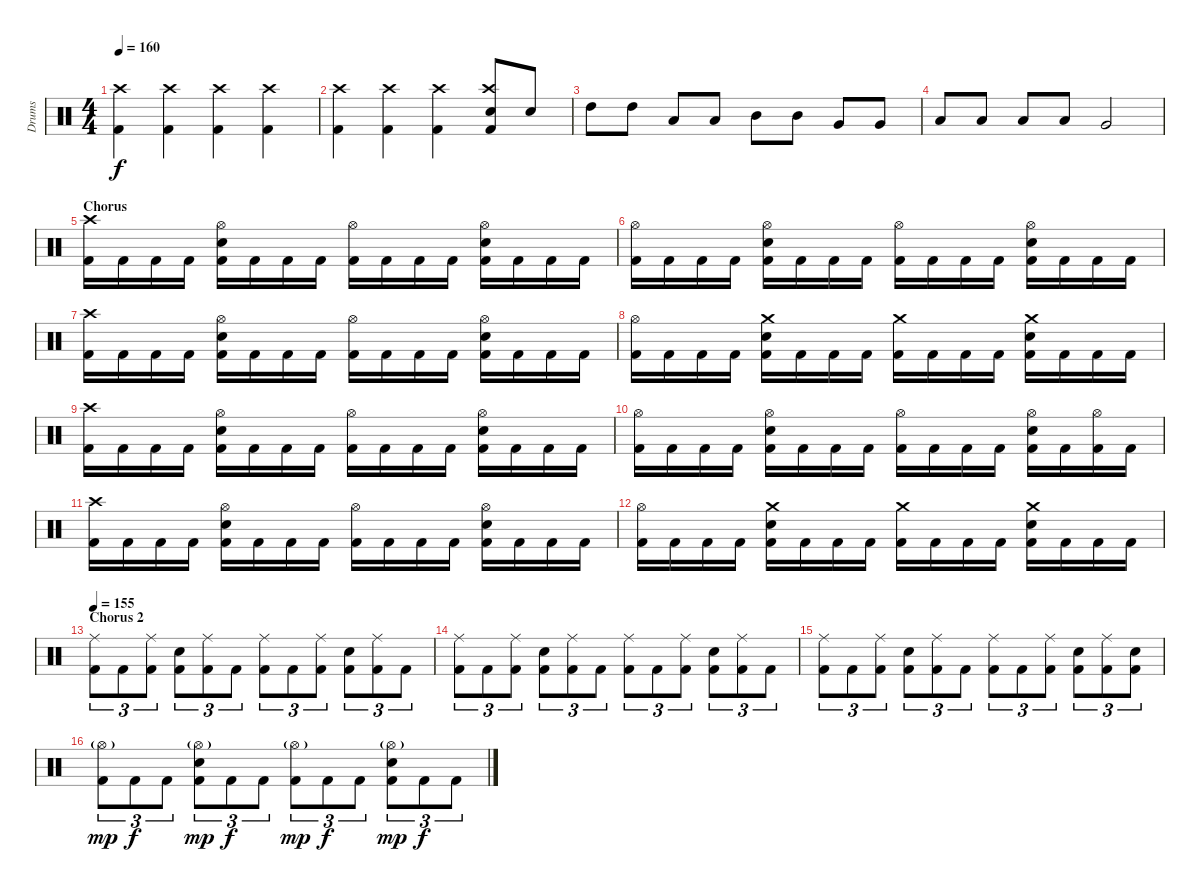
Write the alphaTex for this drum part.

\track ("Drums" "Drums") {instrument percussion}
\staff {score}
\articulation defaults
\ts (4 4)
\tempo 160
\clef neutral
\ks c
("Kick (hit) 2" "Crash high (hit)").4{dy f} ("Kick (hit) 2" "Crash high (hit)").4 ("Kick (hit) 2" "Crash high (hit)").4 ("Kick (hit) 2" "Crash high (hit)").4 |
("Kick (hit) 2" "Crash high (hit)").4 ("Kick (hit) 2" "Crash high (hit)").4 ("Kick (hit) 2" "Crash high (hit)").4 ("Kick (hit) 2" "Electric Snare (hit)" "Crash high (hit)").8 "Electric Snare (hit)".8 |
"High Tom (hit)".8 "High Tom (hit)".8 "Low Tom (hit)".8 "Low Tom (hit)".8 "Mid Tom (hit)".8 "Mid Tom (hit)".8 "Very Low Tom (hit)".8 "Very Low Tom (hit)".8 |
"Low Tom (hit)".8 "Low Tom (hit)".8 "Low Floor Tom (hit)".8 "Low Floor Tom (hit)".8 "Very Low Tom (hit)".2 |
\section ("" "Chorus")
("Kick (hit) 2" "Crash high (hit)").16 "Kick (hit) 2".16 "Kick (hit) 2".16 "Kick (hit) 2".16 ("Kick (hit) 2" "Electric Snare (hit)" "Hi-Hat (open)").16 "Kick (hit) 2".16 "Kick (hit) 2".16 "Kick (hit) 2".16 ("Kick (hit) 2" "Hi-Hat (open)").16 "Kick (hit) 2".16 "Kick (hit) 2".16 "Kick (hit) 2".16 ("Kick (hit) 2" "Electric Snare (hit)" "Hi-Hat (open)").16 "Kick (hit) 2".16 "Kick (hit) 2".16 "Kick (hit) 2".16 |
("Kick (hit) 2" "Hi-Hat (open)").16 "Kick (hit) 2".16 "Kick (hit) 2".16 "Kick (hit) 2".16 ("Kick (hit) 2" "Electric Snare (hit)" "Hi-Hat (open)").16 "Kick (hit) 2".16 "Kick (hit) 2".16 "Kick (hit) 2".16 ("Kick (hit) 2" "Hi-Hat (open)").16 "Kick (hit) 2".16 "Kick (hit) 2".16 "Kick (hit) 2".16 ("Kick (hit) 2" "Electric Snare (hit)" "Hi-Hat (open)").16 "Kick (hit) 2".16 "Kick (hit) 2".16 "Kick (hit) 2".16 |
("Kick (hit) 2" "Crash high (hit)").16 "Kick (hit) 2".16 "Kick (hit) 2".16 "Kick (hit) 2".16 ("Kick (hit) 2" "Electric Snare (hit)" "Hi-Hat (open)").16 "Kick (hit) 2".16 "Kick (hit) 2".16 "Kick (hit) 2".16 ("Kick (hit) 2" "Hi-Hat (open)").16 "Kick (hit) 2".16 "Kick (hit) 2".16 "Kick (hit) 2".16 ("Kick (hit) 2" "Electric Snare (hit)" "Hi-Hat (open)").16 "Kick (hit) 2".16 "Kick (hit) 2".16 "Kick (hit) 2".16 |
("Kick (hit) 2" "Hi-Hat (open)").16 "Kick (hit) 2".16 "Kick (hit) 2".16 "Kick (hit) 2".16 ("Kick (hit) 2" "Electric Snare (hit)" "Crash medium (hit)").16 "Kick (hit) 2".16 "Kick (hit) 2".16 "Kick (hit) 2".16 ("Kick (hit) 2" "Crash medium (hit)").16 "Kick (hit) 2".16 "Kick (hit) 2".16 "Kick (hit) 2".16 ("Kick (hit) 2" "Electric Snare (hit)" "Crash medium (hit)").16 "Kick (hit) 2".16 "Kick (hit) 2".16 "Kick (hit) 2".16 |
("Kick (hit) 2" "Crash high (hit)").16 "Kick (hit) 2".16 "Kick (hit) 2".16 "Kick (hit) 2".16 ("Kick (hit) 2" "Electric Snare (hit)" "Hi-Hat (open)").16 "Kick (hit) 2".16 "Kick (hit) 2".16 "Kick (hit) 2".16 ("Kick (hit) 2" "Hi-Hat (open)").16 "Kick (hit) 2".16 "Kick (hit) 2".16 "Kick (hit) 2".16 ("Kick (hit) 2" "Electric Snare (hit)" "Hi-Hat (open)").16 "Kick (hit) 2".16 "Kick (hit) 2".16 "Kick (hit) 2".16 |
("Kick (hit) 2" "Hi-Hat (open)").16 "Kick (hit) 2".16 "Kick (hit) 2".16 "Kick (hit) 2".16 ("Kick (hit) 2" "Electric Snare (hit)" "Hi-Hat (open)").16 "Kick (hit) 2".16 "Kick (hit) 2".16 "Kick (hit) 2".16 ("Kick (hit) 2" "Hi-Hat (open)").16 "Kick (hit) 2".16 "Kick (hit) 2".16 "Kick (hit) 2".16 ("Kick (hit) 2" "Electric Snare (hit)" "Hi-Hat (open)").16 "Kick (hit) 2".16 ("Kick (hit) 2" "Hi-Hat (open)").16 "Kick (hit) 2".16 |
("Kick (hit) 2" "Crash high (hit)").16 "Kick (hit) 2".16 "Kick (hit) 2".16 "Kick (hit) 2".16 ("Kick (hit) 2" "Electric Snare (hit)" "Hi-Hat (open)").16 "Kick (hit) 2".16 "Kick (hit) 2".16 "Kick (hit) 2".16 ("Kick (hit) 2" "Hi-Hat (open)").16 "Kick (hit) 2".16 "Kick (hit) 2".16 "Kick (hit) 2".16 ("Kick (hit) 2" "Electric Snare (hit)" "Hi-Hat (open)").16 "Kick (hit) 2".16 "Kick (hit) 2".16 "Kick (hit) 2".16 |
("Kick (hit) 2" "Hi-Hat (open)").16 "Kick (hit) 2".16 "Kick (hit) 2".16 "Kick (hit) 2".16 ("Kick (hit) 2" "Electric Snare (hit)" "Crash medium (hit)").16 "Kick (hit) 2".16 "Kick (hit) 2".16 "Kick (hit) 2".16 ("Kick (hit) 2" "Crash medium (hit)").16 "Kick (hit) 2".16 "Kick (hit) 2".16 "Kick (hit) 2".16 ("Kick (hit) 2" "Electric Snare (hit)" "Crash medium (hit)").16 "Kick (hit) 2".16 "Kick (hit) 2".16 "Kick (hit) 2".16 |
\section ("" "Chorus 2")
\tempo 155
("Kick (hit) 2" "Ride (middle)").8{tu (3 2)} "Kick (hit) 2".8{tu (3 2)} ("Kick (hit) 2" "Ride (middle)").8{tu (3 2)} ("Kick (hit) 2" "Electric Snare (hit)").8{tu (3 2)} ("Kick (hit) 2" "Ride (middle)").8{tu (3 2)} "Kick (hit) 2".8{tu (3 2)} ("Kick (hit) 2" "Ride (middle)").8{tu (3 2)} "Kick (hit) 2".8{tu (3 2)} ("Kick (hit) 2" "Ride (middle)").8{tu (3 2)} ("Kick (hit) 2" "Electric Snare (hit)").8{tu (3 2)} ("Kick (hit) 2" "Ride (middle)").8{tu (3 2)} "Kick (hit) 2".8{tu (3 2)} |
("Kick (hit) 2" "Ride (middle)").8{tu (3 2)} "Kick (hit) 2".8{tu (3 2)} ("Kick (hit) 2" "Ride (middle)").8{tu (3 2)} ("Kick (hit) 2" "Electric Snare (hit)").8{tu (3 2)} ("Kick (hit) 2" "Ride (middle)").8{tu (3 2)} "Kick (hit) 2".8{tu (3 2)} ("Kick (hit) 2" "Ride (middle)").8{tu (3 2)} "Kick (hit) 2".8{tu (3 2)} ("Kick (hit) 2" "Ride (middle)").8{tu (3 2)} ("Kick (hit) 2" "Electric Snare (hit)").8{tu (3 2)} ("Kick (hit) 2" "Ride (middle)").8{tu (3 2)} "Kick (hit) 2".8{tu (3 2)} |
("Kick (hit) 2" "Ride (middle)").8{tu (3 2)} "Kick (hit) 2".8{tu (3 2)} ("Kick (hit) 2" "Ride (middle)").8{tu (3 2)} ("Kick (hit) 2" "Electric Snare (hit)").8{tu (3 2)} ("Kick (hit) 2" "Ride (middle)").8{tu (3 2)} "Kick (hit) 2".8{tu (3 2)} ("Kick (hit) 2" "Ride (middle)").8{tu (3 2)} "Kick (hit) 2".8{tu (3 2)} ("Kick (hit) 2" "Ride (middle)").8{tu (3 2)} ("Kick (hit) 2" "Electric Snare (hit)").8{tu (3 2)} ("Kick (hit) 2" "Ride (middle)").8{tu (3 2)} ("Kick (hit) 2" "Electric Snare (hit)").8{tu (3 2)} |
("Kick (hit) 2" "Hi-Hat (open)"{g}).8{tu (3 2) dy mp} "Kick (hit) 2".8{tu (3 2) dy f} "Kick (hit) 2".8{tu (3 2)} ("Kick (hit) 2" "Electric Snare (hit)" "Hi-Hat (open)"{g}).8{tu (3 2) dy mp} "Kick (hit) 2".8{tu (3 2) dy f} "Kick (hit) 2".8{tu (3 2)} ("Kick (hit) 2" "Hi-Hat (open)"{g}).8{tu (3 2) dy mp} "Kick (hit) 2".8{tu (3 2) dy f} "Kick (hit) 2".8{tu (3 2)} ("Kick (hit) 2" "Electric Snare (hit)" "Hi-Hat (open)"{g}).8{tu (3 2) dy mp} "Kick (hit) 2".8{tu (3 2) dy f} "Kick (hit) 2".8{tu (3 2)}
